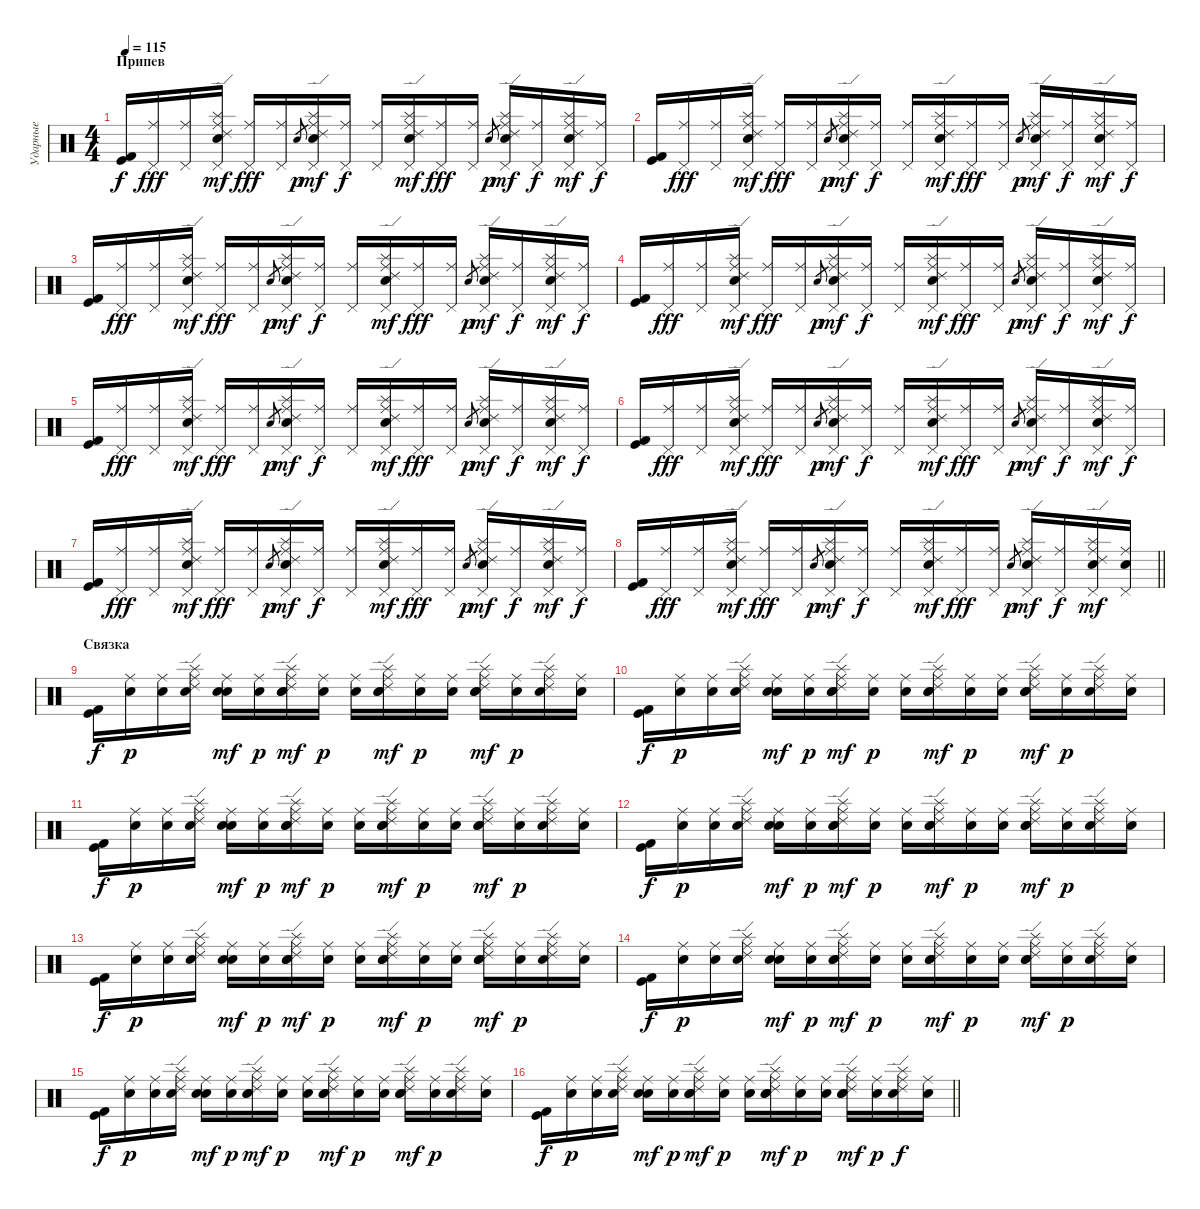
\track ("Ударные" "Ударные") {instrument percussion}
\staff {score}
\articulation defaults
\ts (4 4)
\section ("" "Припев")
\tempo 115
\clef neutral
\ks c
("Kick (hit)" "Kick (hit) 2").16{dy f volume 13} ("Ride (middle)" "Pedal Hi-Hat (hit)").16{dy fff} ("Ride (middle)" "Pedal Hi-Hat (hit)").16 ("Ride (edge) 2" "Splash (hit)" "Ride (middle)" "Pedal Hi-Hat (hit)" "Electric Snare (hit)").16{dy mf} ("Ride (middle)" "Pedal Hi-Hat (hit)").16{dy fff} ("Ride (middle)" "Pedal Hi-Hat (hit)").16 "Electric Snare (hit)".8{gr dy p} ("Ride (edge) 2" "Splash (hit)" "Ride (middle)" "Pedal Hi-Hat (hit)" "Electric Snare (hit)").16{dy mf} ("Ride (middle)" "Pedal Hi-Hat (hit)").16{dy f} ("Ride (middle)" "Pedal Hi-Hat (hit)").16 ("Ride (edge) 2" "Splash (hit)" "Ride (middle)" "Pedal Hi-Hat (hit)" "Electric Snare (hit)").16{dy mf} ("Ride (middle)" "Pedal Hi-Hat (hit)").16{dy fff} ("Ride (middle)" "Pedal Hi-Hat (hit)").16 "Electric Snare (hit)".8{gr dy p} ("Ride (edge) 2" "Splash (hit)" "Ride (middle)" "Pedal Hi-Hat (hit)" "Electric Snare (hit)").16{dy mf} ("Ride (middle)" "Pedal Hi-Hat (hit)").16{dy f} ("Ride (edge) 2" "Splash (hit)" "Ride (middle)" "Pedal Hi-Hat (hit)" "Electric Snare (hit)").16{dy mf} ("Ride (middle)" "Pedal Hi-Hat (hit)").16{dy f} |
("Kick (hit)" "Kick (hit) 2").16 ("Ride (middle)" "Pedal Hi-Hat (hit)").16{dy fff} ("Ride (middle)" "Pedal Hi-Hat (hit)").16 ("Ride (edge) 2" "Splash (hit)" "Ride (middle)" "Pedal Hi-Hat (hit)" "Electric Snare (hit)").16{dy mf} ("Ride (middle)" "Pedal Hi-Hat (hit)").16{dy fff} ("Ride (middle)" "Pedal Hi-Hat (hit)").16 "Electric Snare (hit)".8{gr dy p} ("Ride (edge) 2" "Splash (hit)" "Ride (middle)" "Pedal Hi-Hat (hit)" "Electric Snare (hit)").16{dy mf} ("Ride (middle)" "Pedal Hi-Hat (hit)").16{dy f} ("Ride (middle)" "Pedal Hi-Hat (hit)").16 ("Ride (edge) 2" "Splash (hit)" "Ride (middle)" "Pedal Hi-Hat (hit)" "Electric Snare (hit)").16{dy mf} ("Ride (middle)" "Pedal Hi-Hat (hit)").16{dy fff} ("Ride (middle)" "Pedal Hi-Hat (hit)").16 "Electric Snare (hit)".8{gr dy p} ("Ride (edge) 2" "Splash (hit)" "Ride (middle)" "Pedal Hi-Hat (hit)" "Electric Snare (hit)").16{dy mf} ("Ride (middle)" "Pedal Hi-Hat (hit)").16{dy f} ("Ride (edge) 2" "Splash (hit)" "Ride (middle)" "Pedal Hi-Hat (hit)" "Electric Snare (hit)").16{dy mf} ("Ride (middle)" "Pedal Hi-Hat (hit)").16{dy f} |
("Kick (hit)" "Kick (hit) 2").16 ("Ride (middle)" "Pedal Hi-Hat (hit)").16{dy fff} ("Ride (middle)" "Pedal Hi-Hat (hit)").16 ("Ride (edge) 2" "Splash (hit)" "Ride (middle)" "Pedal Hi-Hat (hit)" "Electric Snare (hit)").16{dy mf} ("Ride (middle)" "Pedal Hi-Hat (hit)").16{dy fff} ("Ride (middle)" "Pedal Hi-Hat (hit)").16 "Electric Snare (hit)".8{gr dy p} ("Ride (edge) 2" "Splash (hit)" "Ride (middle)" "Pedal Hi-Hat (hit)" "Electric Snare (hit)").16{dy mf} ("Ride (middle)" "Pedal Hi-Hat (hit)").16{dy f} ("Ride (middle)" "Pedal Hi-Hat (hit)").16 ("Ride (edge) 2" "Splash (hit)" "Ride (middle)" "Pedal Hi-Hat (hit)" "Electric Snare (hit)").16{dy mf} ("Ride (middle)" "Pedal Hi-Hat (hit)").16{dy fff} ("Ride (middle)" "Pedal Hi-Hat (hit)").16 "Electric Snare (hit)".8{gr dy p} ("Ride (edge) 2" "Splash (hit)" "Ride (middle)" "Pedal Hi-Hat (hit)" "Electric Snare (hit)").16{dy mf} ("Ride (middle)" "Pedal Hi-Hat (hit)").16{dy f} ("Ride (edge) 2" "Splash (hit)" "Ride (middle)" "Pedal Hi-Hat (hit)" "Electric Snare (hit)").16{dy mf} ("Ride (middle)" "Pedal Hi-Hat (hit)").16{dy f} |
("Kick (hit)" "Kick (hit) 2").16 ("Ride (middle)" "Pedal Hi-Hat (hit)").16{dy fff} ("Ride (middle)" "Pedal Hi-Hat (hit)").16 ("Ride (edge) 2" "Splash (hit)" "Ride (middle)" "Pedal Hi-Hat (hit)" "Electric Snare (hit)").16{dy mf} ("Ride (middle)" "Pedal Hi-Hat (hit)").16{dy fff} ("Ride (middle)" "Pedal Hi-Hat (hit)").16 "Electric Snare (hit)".8{gr dy p} ("Ride (edge) 2" "Splash (hit)" "Ride (middle)" "Pedal Hi-Hat (hit)" "Electric Snare (hit)").16{dy mf} ("Ride (middle)" "Pedal Hi-Hat (hit)").16{dy f} ("Ride (middle)" "Pedal Hi-Hat (hit)").16 ("Ride (edge) 2" "Splash (hit)" "Ride (middle)" "Pedal Hi-Hat (hit)" "Electric Snare (hit)").16{dy mf} ("Ride (middle)" "Pedal Hi-Hat (hit)").16{dy fff} ("Ride (middle)" "Pedal Hi-Hat (hit)").16 "Electric Snare (hit)".8{gr dy p} ("Ride (edge) 2" "Splash (hit)" "Ride (middle)" "Pedal Hi-Hat (hit)" "Electric Snare (hit)").16{dy mf} ("Ride (middle)" "Pedal Hi-Hat (hit)").16{dy f} ("Ride (edge) 2" "Splash (hit)" "Ride (middle)" "Pedal Hi-Hat (hit)" "Electric Snare (hit)").16{dy mf} ("Ride (middle)" "Pedal Hi-Hat (hit)").16{dy f} |
("Kick (hit)" "Kick (hit) 2").16 ("Ride (middle)" "Pedal Hi-Hat (hit)").16{dy fff} ("Ride (middle)" "Pedal Hi-Hat (hit)").16 ("Ride (edge) 2" "Splash (hit)" "Ride (middle)" "Pedal Hi-Hat (hit)" "Electric Snare (hit)").16{dy mf} ("Ride (middle)" "Pedal Hi-Hat (hit)").16{dy fff} ("Ride (middle)" "Pedal Hi-Hat (hit)").16 "Electric Snare (hit)".8{gr dy p} ("Ride (edge) 2" "Splash (hit)" "Ride (middle)" "Pedal Hi-Hat (hit)" "Electric Snare (hit)").16{dy mf} ("Ride (middle)" "Pedal Hi-Hat (hit)").16{dy f} ("Ride (middle)" "Pedal Hi-Hat (hit)").16 ("Ride (edge) 2" "Splash (hit)" "Ride (middle)" "Pedal Hi-Hat (hit)" "Electric Snare (hit)").16{dy mf} ("Ride (middle)" "Pedal Hi-Hat (hit)").16{dy fff} ("Ride (middle)" "Pedal Hi-Hat (hit)").16 "Electric Snare (hit)".8{gr dy p} ("Ride (edge) 2" "Splash (hit)" "Ride (middle)" "Pedal Hi-Hat (hit)" "Electric Snare (hit)").16{dy mf} ("Ride (middle)" "Pedal Hi-Hat (hit)").16{dy f} ("Ride (edge) 2" "Splash (hit)" "Ride (middle)" "Pedal Hi-Hat (hit)" "Electric Snare (hit)").16{dy mf} ("Ride (middle)" "Pedal Hi-Hat (hit)").16{dy f} |
("Kick (hit)" "Kick (hit) 2").16 ("Ride (middle)" "Pedal Hi-Hat (hit)").16{dy fff} ("Ride (middle)" "Pedal Hi-Hat (hit)").16 ("Ride (edge) 2" "Splash (hit)" "Ride (middle)" "Pedal Hi-Hat (hit)" "Electric Snare (hit)").16{dy mf} ("Ride (middle)" "Pedal Hi-Hat (hit)").16{dy fff} ("Ride (middle)" "Pedal Hi-Hat (hit)").16 "Electric Snare (hit)".8{gr dy p} ("Ride (edge) 2" "Splash (hit)" "Ride (middle)" "Pedal Hi-Hat (hit)" "Electric Snare (hit)").16{dy mf} ("Ride (middle)" "Pedal Hi-Hat (hit)").16{dy f} ("Ride (middle)" "Pedal Hi-Hat (hit)").16 ("Ride (edge) 2" "Splash (hit)" "Ride (middle)" "Pedal Hi-Hat (hit)" "Electric Snare (hit)").16{dy mf} ("Ride (middle)" "Pedal Hi-Hat (hit)").16{dy fff} ("Ride (middle)" "Pedal Hi-Hat (hit)").16 "Electric Snare (hit)".8{gr dy p} ("Ride (edge) 2" "Splash (hit)" "Ride (middle)" "Pedal Hi-Hat (hit)" "Electric Snare (hit)").16{dy mf} ("Ride (middle)" "Pedal Hi-Hat (hit)").16{dy f} ("Ride (edge) 2" "Splash (hit)" "Ride (middle)" "Pedal Hi-Hat (hit)" "Electric Snare (hit)").16{dy mf} ("Ride (middle)" "Pedal Hi-Hat (hit)").16{dy f} |
("Kick (hit)" "Kick (hit) 2").16 ("Ride (middle)" "Pedal Hi-Hat (hit)").16{dy fff} ("Ride (middle)" "Pedal Hi-Hat (hit)").16 ("Ride (edge) 2" "Splash (hit)" "Ride (middle)" "Pedal Hi-Hat (hit)" "Electric Snare (hit)").16{dy mf} ("Ride (middle)" "Pedal Hi-Hat (hit)").16{dy fff} ("Ride (middle)" "Pedal Hi-Hat (hit)").16 "Electric Snare (hit)".8{gr dy p} ("Ride (edge) 2" "Splash (hit)" "Ride (middle)" "Pedal Hi-Hat (hit)" "Electric Snare (hit)").16{dy mf} ("Ride (middle)" "Pedal Hi-Hat (hit)").16{dy f} ("Ride (middle)" "Pedal Hi-Hat (hit)").16 ("Ride (edge) 2" "Splash (hit)" "Ride (middle)" "Pedal Hi-Hat (hit)" "Electric Snare (hit)").16{dy mf} ("Ride (middle)" "Pedal Hi-Hat (hit)").16{dy fff} ("Ride (middle)" "Pedal Hi-Hat (hit)").16 "Electric Snare (hit)".8{gr dy p} ("Ride (edge) 2" "Splash (hit)" "Ride (middle)" "Pedal Hi-Hat (hit)" "Electric Snare (hit)").16{dy mf} ("Ride (middle)" "Pedal Hi-Hat (hit)").16{dy f} ("Ride (edge) 2" "Splash (hit)" "Ride (middle)" "Pedal Hi-Hat (hit)" "Electric Snare (hit)").16{dy mf} ("Ride (middle)" "Pedal Hi-Hat (hit)").16{dy f} |
\barLineRight lightlight
("Kick (hit)" "Kick (hit) 2").16 ("Ride (middle)" "Pedal Hi-Hat (hit)").16{dy fff} ("Ride (middle)" "Pedal Hi-Hat (hit)").16 ("Ride (edge) 2" "Splash (hit)" "Ride (middle)" "Pedal Hi-Hat (hit)" "Electric Snare (hit)").16{dy mf} ("Ride (middle)" "Pedal Hi-Hat (hit)").16{dy fff} ("Ride (middle)" "Pedal Hi-Hat (hit)").16 "Electric Snare (hit)".8{gr dy p} ("Ride (edge) 2" "Splash (hit)" "Ride (middle)" "Pedal Hi-Hat (hit)" "Electric Snare (hit)").16{dy mf} ("Ride (middle)" "Pedal Hi-Hat (hit)").16{dy f} ("Ride (middle)" "Pedal Hi-Hat (hit)").16 ("Ride (edge) 2" "Splash (hit)" "Ride (middle)" "Pedal Hi-Hat (hit)" "Electric Snare (hit)").16{dy mf} ("Ride (middle)" "Pedal Hi-Hat (hit)").16{dy fff} ("Ride (middle)" "Pedal Hi-Hat (hit)").16 "Electric Snare (hit)".8{gr dy p} ("Ride (edge) 2" "Splash (hit)" "Ride (middle)" "Pedal Hi-Hat (hit)" "Electric Snare (hit)").16{dy mf} ("Ride (middle)" "Pedal Hi-Hat (hit)").16{dy f} ("Ride (edge) 2" "Splash (hit)" "Ride (middle)" "Pedal Hi-Hat (hit)" "Electric Snare (hit)").16{dy mf} ("Ride (middle)" "Pedal Hi-Hat (hit)" "Electric Snare (hit)").16 |
\section ("" "Связка")
("Kick (hit)" "Kick (hit) 2").16{dy f} ("Ride (middle)" "Electric Snare (hit)").16{dy p} ("Ride (middle)" "Electric Snare (hit)").16 ("Ride (edge) 2" "Splash (hit)" "Ride (middle)" "Electric Snare (hit)").16 ("Ride (middle)" "Electric Snare (hit)" "Snare (hit) 2").16{dy mf} ("Ride (middle)" "Electric Snare (hit)").16{dy p} ("Ride (edge) 2" "Splash (hit)" "Ride (middle)" "Electric Snare (hit)" "Snare (hit) 2").16{dy mf} ("Ride (middle)" "Electric Snare (hit)").16{dy p} ("Ride (middle)" "Electric Snare (hit)").16 ("Ride (edge) 2" "Splash (hit)" "Ride (middle)" "Electric Snare (hit)" "Snare (hit) 2").16{dy mf} ("Ride (middle)" "Electric Snare (hit)").16{dy p} ("Ride (middle)" "Electric Snare (hit)").16 ("Ride (edge) 2" "Splash (hit)" "Ride (middle)" "Electric Snare (hit)" "Snare (hit) 2").16{dy mf} ("Ride (middle)" "Electric Snare (hit)").16{dy p} ("Ride (edge) 2" "Splash (hit)" "Ride (middle)" "Electric Snare (hit)").16 ("Ride (middle)" "Electric Snare (hit)").16 |
("Kick (hit)" "Kick (hit) 2").16{dy f} ("Ride (middle)" "Electric Snare (hit)").16{dy p} ("Ride (middle)" "Electric Snare (hit)").16 ("Ride (edge) 2" "Splash (hit)" "Ride (middle)" "Electric Snare (hit)").16 ("Ride (middle)" "Electric Snare (hit)" "Snare (hit) 2").16{dy mf} ("Ride (middle)" "Electric Snare (hit)").16{dy p} ("Ride (edge) 2" "Splash (hit)" "Ride (middle)" "Electric Snare (hit)" "Snare (hit) 2").16{dy mf} ("Ride (middle)" "Electric Snare (hit)").16{dy p} ("Ride (middle)" "Electric Snare (hit)").16 ("Ride (edge) 2" "Splash (hit)" "Ride (middle)" "Electric Snare (hit)" "Snare (hit) 2").16{dy mf} ("Ride (middle)" "Electric Snare (hit)").16{dy p} ("Ride (middle)" "Electric Snare (hit)").16 ("Ride (edge) 2" "Splash (hit)" "Ride (middle)" "Electric Snare (hit)" "Snare (hit) 2").16{dy mf} ("Ride (middle)" "Electric Snare (hit)").16{dy p} ("Ride (edge) 2" "Splash (hit)" "Ride (middle)" "Electric Snare (hit)").16 ("Ride (middle)" "Electric Snare (hit)").16 |
("Kick (hit)" "Kick (hit) 2").16{dy f} ("Ride (middle)" "Electric Snare (hit)").16{dy p} ("Ride (middle)" "Electric Snare (hit)").16 ("Ride (edge) 2" "Splash (hit)" "Ride (middle)" "Electric Snare (hit)").16 ("Ride (middle)" "Electric Snare (hit)" "Snare (hit) 2").16{dy mf} ("Ride (middle)" "Electric Snare (hit)").16{dy p} ("Ride (edge) 2" "Splash (hit)" "Ride (middle)" "Electric Snare (hit)" "Snare (hit) 2").16{dy mf} ("Ride (middle)" "Electric Snare (hit)").16{dy p} ("Ride (middle)" "Electric Snare (hit)").16 ("Ride (edge) 2" "Splash (hit)" "Ride (middle)" "Electric Snare (hit)" "Snare (hit) 2").16{dy mf} ("Ride (middle)" "Electric Snare (hit)").16{dy p} ("Ride (middle)" "Electric Snare (hit)").16 ("Ride (edge) 2" "Splash (hit)" "Ride (middle)" "Electric Snare (hit)" "Snare (hit) 2").16{dy mf} ("Ride (middle)" "Electric Snare (hit)").16{dy p} ("Ride (edge) 2" "Splash (hit)" "Ride (middle)" "Electric Snare (hit)").16 ("Ride (middle)" "Electric Snare (hit)").16 |
("Kick (hit)" "Kick (hit) 2").16{dy f} ("Ride (middle)" "Electric Snare (hit)").16{dy p} ("Ride (middle)" "Electric Snare (hit)").16 ("Ride (edge) 2" "Splash (hit)" "Ride (middle)" "Electric Snare (hit)").16 ("Ride (middle)" "Electric Snare (hit)" "Snare (hit) 2").16{dy mf} ("Ride (middle)" "Electric Snare (hit)").16{dy p} ("Ride (edge) 2" "Splash (hit)" "Ride (middle)" "Electric Snare (hit)" "Snare (hit) 2").16{dy mf} ("Ride (middle)" "Electric Snare (hit)").16{dy p} ("Ride (middle)" "Electric Snare (hit)").16 ("Ride (edge) 2" "Splash (hit)" "Ride (middle)" "Electric Snare (hit)" "Snare (hit) 2").16{dy mf} ("Ride (middle)" "Electric Snare (hit)").16{dy p} ("Ride (middle)" "Electric Snare (hit)").16 ("Ride (edge) 2" "Splash (hit)" "Ride (middle)" "Electric Snare (hit)" "Snare (hit) 2").16{dy mf} ("Ride (middle)" "Electric Snare (hit)").16{dy p} ("Ride (edge) 2" "Splash (hit)" "Ride (middle)" "Electric Snare (hit)").16 ("Ride (middle)" "Electric Snare (hit)").16 |
("Kick (hit)" "Kick (hit) 2").16{dy f} ("Ride (middle)" "Electric Snare (hit)").16{dy p} ("Ride (middle)" "Electric Snare (hit)").16 ("Ride (edge) 2" "Splash (hit)" "Ride (middle)" "Electric Snare (hit)").16 ("Ride (middle)" "Electric Snare (hit)" "Snare (hit) 2").16{dy mf} ("Ride (middle)" "Electric Snare (hit)").16{dy p} ("Ride (edge) 2" "Splash (hit)" "Ride (middle)" "Electric Snare (hit)" "Snare (hit) 2").16{dy mf} ("Ride (middle)" "Electric Snare (hit)").16{dy p} ("Ride (middle)" "Electric Snare (hit)").16 ("Ride (edge) 2" "Splash (hit)" "Ride (middle)" "Electric Snare (hit)" "Snare (hit) 2").16{dy mf} ("Ride (middle)" "Electric Snare (hit)").16{dy p} ("Ride (middle)" "Electric Snare (hit)").16 ("Ride (edge) 2" "Splash (hit)" "Ride (middle)" "Electric Snare (hit)" "Snare (hit) 2").16{dy mf} ("Ride (middle)" "Electric Snare (hit)").16{dy p} ("Ride (edge) 2" "Splash (hit)" "Ride (middle)" "Electric Snare (hit)").16 ("Ride (middle)" "Electric Snare (hit)").16 |
("Kick (hit)" "Kick (hit) 2").16{dy f} ("Ride (middle)" "Electric Snare (hit)").16{dy p} ("Ride (middle)" "Electric Snare (hit)").16 ("Ride (edge) 2" "Splash (hit)" "Ride (middle)" "Electric Snare (hit)").16 ("Ride (middle)" "Electric Snare (hit)" "Snare (hit) 2").16{dy mf} ("Ride (middle)" "Electric Snare (hit)").16{dy p} ("Ride (edge) 2" "Splash (hit)" "Ride (middle)" "Electric Snare (hit)" "Snare (hit) 2").16{dy mf} ("Ride (middle)" "Electric Snare (hit)").16{dy p} ("Ride (middle)" "Electric Snare (hit)").16 ("Ride (edge) 2" "Splash (hit)" "Ride (middle)" "Electric Snare (hit)" "Snare (hit) 2").16{dy mf} ("Ride (middle)" "Electric Snare (hit)").16{dy p} ("Ride (middle)" "Electric Snare (hit)").16 ("Ride (edge) 2" "Splash (hit)" "Ride (middle)" "Electric Snare (hit)" "Snare (hit) 2").16{dy mf} ("Ride (middle)" "Electric Snare (hit)").16{dy p} ("Ride (edge) 2" "Splash (hit)" "Ride (middle)" "Electric Snare (hit)").16 ("Ride (middle)" "Electric Snare (hit)").16 |
("Kick (hit)" "Kick (hit) 2").16{dy f} ("Ride (middle)" "Electric Snare (hit)").16{dy p} ("Ride (middle)" "Electric Snare (hit)").16 ("Ride (edge) 2" "Splash (hit)" "Ride (middle)" "Electric Snare (hit)").16 ("Ride (middle)" "Electric Snare (hit)" "Snare (hit) 2").16{dy mf} ("Ride (middle)" "Electric Snare (hit)").16{dy p} ("Ride (edge) 2" "Splash (hit)" "Ride (middle)" "Electric Snare (hit)" "Snare (hit) 2").16{dy mf} ("Ride (middle)" "Electric Snare (hit)").16{dy p} ("Ride (middle)" "Electric Snare (hit)").16 ("Ride (edge) 2" "Splash (hit)" "Ride (middle)" "Electric Snare (hit)" "Snare (hit) 2").16{dy mf} ("Ride (middle)" "Electric Snare (hit)").16{dy p} ("Ride (middle)" "Electric Snare (hit)").16 ("Ride (edge) 2" "Splash (hit)" "Ride (middle)" "Electric Snare (hit)" "Snare (hit) 2").16{dy mf} ("Ride (middle)" "Electric Snare (hit)").16{dy p} ("Ride (edge) 2" "Splash (hit)" "Ride (middle)" "Electric Snare (hit)").16 ("Ride (middle)" "Electric Snare (hit)").16 |
\barLineRight lightlight
("Kick (hit)" "Kick (hit) 2").16{dy f} ("Ride (middle)" "Electric Snare (hit)").16{dy p} ("Ride (middle)" "Electric Snare (hit)").16 ("Ride (edge) 2" "Splash (hit)" "Ride (middle)" "Electric Snare (hit)").16 ("Ride (middle)" "Electric Snare (hit)" "Snare (hit) 2").16{dy mf} ("Ride (middle)" "Electric Snare (hit)").16{dy p} ("Ride (edge) 2" "Splash (hit)" "Ride (middle)" "Electric Snare (hit)" "Snare (hit) 2").16{dy mf} ("Ride (middle)" "Electric Snare (hit)").16{dy p} ("Ride (middle)" "Electric Snare (hit)").16 ("Ride (edge) 2" "Splash (hit)" "Ride (middle)" "Electric Snare (hit)" "Snare (hit) 2").16{dy mf} ("Ride (middle)" "Electric Snare (hit)").16{dy p} ("Ride (middle)" "Electric Snare (hit)").16 ("Ride (edge) 2" "Splash (hit)" "Ride (middle)" "Electric Snare (hit)" "Snare (hit) 2").16{dy mf} ("Ride (middle)" "Electric Snare (hit)").16{dy p} ("Ride (edge) 2" "Splash (hit)" "Ride (middle)" "Electric Snare (hit)").16{dy f} ("Ride (middle)" "Electric Snare (hit)").16
